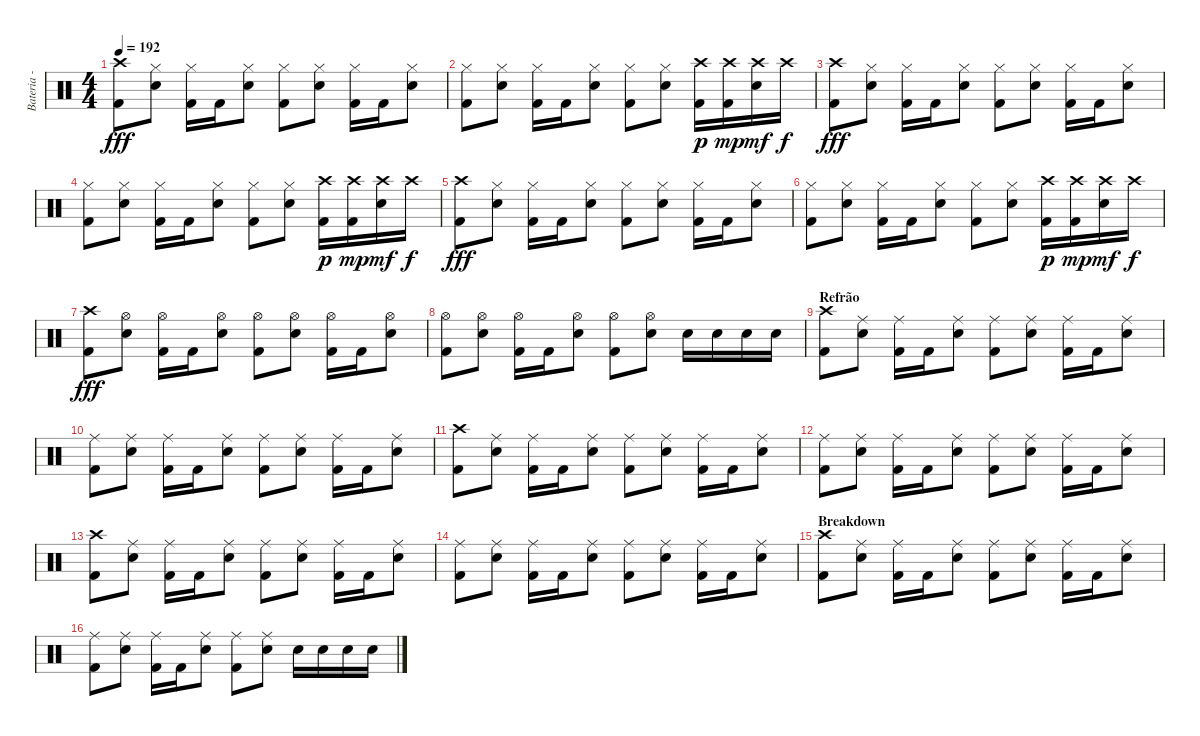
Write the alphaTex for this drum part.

\track ("Bateria - Larzon" "Bateria - ") {instrument percussion}
\staff {score}
\articulation defaults
\ts (4 4)
\tempo 192
\clef neutral
\ks c
("Kick (hit) 2" "Crash high (hit)").8{dy fff} ("Electric Snare (hit)" "Hi-Hat (closed)").8 ("Kick (hit) 2" "Hi-Hat (closed)").16 "Kick (hit) 2".16 ("Electric Snare (hit)" "Hi-Hat (closed)").8 ("Kick (hit) 2" "Hi-Hat (closed)").8 ("Electric Snare (hit)" "Hi-Hat (closed)").8 ("Kick (hit) 2" "Hi-Hat (closed)").16 "Kick (hit) 2".16 ("Electric Snare (hit)" "Hi-Hat (closed)").8 |
("Kick (hit) 2" "Hi-Hat (closed)").8 ("Electric Snare (hit)" "Hi-Hat (closed)").8 ("Kick (hit) 2" "Hi-Hat (closed)").16 "Kick (hit) 2".16 ("Electric Snare (hit)" "Hi-Hat (closed)").8 ("Kick (hit) 2" "Hi-Hat (closed)").8 ("Electric Snare (hit)" "Hi-Hat (closed)").8 ("Kick (hit) 2" "Crash high (hit)").16{dy p} ("Kick (hit) 2" "Crash high (hit)").16{dy mp} ("Electric Snare (hit)" "Crash high (hit)").16{dy mf} "Crash high (hit)".16{dy f} |
("Kick (hit) 2" "Crash high (hit)").8{dy fff} ("Electric Snare (hit)" "Hi-Hat (closed)").8 ("Kick (hit) 2" "Hi-Hat (closed)").16 "Kick (hit) 2".16 ("Electric Snare (hit)" "Hi-Hat (closed)").8 ("Kick (hit) 2" "Hi-Hat (closed)").8 ("Electric Snare (hit)" "Hi-Hat (closed)").8 ("Kick (hit) 2" "Hi-Hat (closed)").16 "Kick (hit) 2".16 ("Electric Snare (hit)" "Hi-Hat (closed)").8 |
("Kick (hit) 2" "Hi-Hat (closed)").8 ("Electric Snare (hit)" "Hi-Hat (closed)").8 ("Kick (hit) 2" "Hi-Hat (closed)").16 "Kick (hit) 2".16 ("Electric Snare (hit)" "Hi-Hat (closed)").8 ("Kick (hit) 2" "Hi-Hat (closed)").8 ("Electric Snare (hit)" "Hi-Hat (closed)").8 ("Kick (hit) 2" "Crash high (hit)").16{dy p} ("Kick (hit) 2" "Crash high (hit)").16{dy mp} ("Electric Snare (hit)" "Crash high (hit)").16{dy mf} "Crash high (hit)".16{dy f} |
("Kick (hit) 2" "Crash high (hit)").8{dy fff} ("Electric Snare (hit)" "Hi-Hat (closed)").8 ("Kick (hit) 2" "Hi-Hat (closed)").16 "Kick (hit) 2".16 ("Electric Snare (hit)" "Hi-Hat (closed)").8 ("Kick (hit) 2" "Hi-Hat (closed)").8 ("Electric Snare (hit)" "Hi-Hat (closed)").8 ("Kick (hit) 2" "Hi-Hat (closed)").16 "Kick (hit) 2".16 ("Electric Snare (hit)" "Hi-Hat (closed)").8 |
("Kick (hit) 2" "Hi-Hat (closed)").8 ("Electric Snare (hit)" "Hi-Hat (closed)").8 ("Kick (hit) 2" "Hi-Hat (closed)").16 "Kick (hit) 2".16 ("Electric Snare (hit)" "Hi-Hat (closed)").8 ("Kick (hit) 2" "Hi-Hat (closed)").8 ("Electric Snare (hit)" "Hi-Hat (closed)").8 ("Kick (hit) 2" "Crash high (hit)").16{dy p} ("Kick (hit) 2" "Crash high (hit)").16{dy mp} ("Electric Snare (hit)" "Crash high (hit)").16{dy mf} "Crash high (hit)".16{dy f} |
("Kick (hit) 2" "Crash high (hit)").8{dy fff} ("Electric Snare (hit)" "Hi-Hat (open)").8 ("Kick (hit) 2" "Hi-Hat (open)").16 "Kick (hit) 2".16 ("Electric Snare (hit)" "Hi-Hat (open)").8 ("Kick (hit) 2" "Hi-Hat (open)").8 ("Electric Snare (hit)" "Hi-Hat (open)").8 ("Kick (hit) 2" "Hi-Hat (open)").16 "Kick (hit) 2".16 ("Electric Snare (hit)" "Hi-Hat (open)").8 |
("Kick (hit) 2" "Hi-Hat (open)").8 ("Electric Snare (hit)" "Hi-Hat (open)").8 ("Kick (hit) 2" "Hi-Hat (open)").16 "Kick (hit) 2".16 ("Electric Snare (hit)" "Hi-Hat (open)").8 ("Kick (hit) 2" "Hi-Hat (open)").8 ("Electric Snare (hit)" "Hi-Hat (open)").8 "Electric Snare (hit)".16 "Electric Snare (hit)".16 "Electric Snare (hit)".16 "Electric Snare (hit)".16 |
\section ("" "Refrão")
("Kick (hit) 2" "Crash high (hit)").8 ("Electric Snare (hit)" "Ride (middle)").8 ("Kick (hit) 2" "Ride (middle)").16 "Kick (hit) 2".16 ("Electric Snare (hit)" "Ride (middle)").8 ("Kick (hit) 2" "Ride (middle)").8 ("Electric Snare (hit)" "Ride (middle)").8 ("Kick (hit) 2" "Ride (middle)").16 "Kick (hit) 2".16 ("Electric Snare (hit)" "Ride (middle)").8 |
("Kick (hit) 2" "Ride (middle)").8 ("Electric Snare (hit)" "Ride (middle)").8 ("Kick (hit) 2" "Ride (middle)").16 "Kick (hit) 2".16 ("Electric Snare (hit)" "Ride (middle)").8 ("Kick (hit) 2" "Ride (middle)").8 ("Electric Snare (hit)" "Ride (middle)").8 ("Kick (hit) 2" "Ride (middle)").16 "Kick (hit) 2".16 ("Electric Snare (hit)" "Ride (middle)").8 |
("Kick (hit) 2" "Crash high (hit)").8 ("Electric Snare (hit)" "Ride (middle)").8 ("Kick (hit) 2" "Ride (middle)").16 "Kick (hit) 2".16 ("Electric Snare (hit)" "Ride (middle)").8 ("Kick (hit) 2" "Ride (middle)").8 ("Electric Snare (hit)" "Ride (middle)").8 ("Kick (hit) 2" "Ride (middle)").16 "Kick (hit) 2".16 ("Electric Snare (hit)" "Ride (middle)").8 |
("Kick (hit) 2" "Ride (middle)").8 ("Electric Snare (hit)" "Ride (middle)").8 ("Kick (hit) 2" "Ride (middle)").16 "Kick (hit) 2".16 ("Electric Snare (hit)" "Ride (middle)").8 ("Kick (hit) 2" "Ride (middle)").8 ("Electric Snare (hit)" "Ride (middle)").8 ("Kick (hit) 2" "Ride (middle)").16 "Kick (hit) 2".16 ("Electric Snare (hit)" "Ride (middle)").8 |
("Kick (hit) 2" "Crash high (hit)").8 ("Electric Snare (hit)" "Ride (middle)").8 ("Kick (hit) 2" "Ride (middle)").16 "Kick (hit) 2".16 ("Electric Snare (hit)" "Ride (middle)").8 ("Kick (hit) 2" "Ride (middle)").8 ("Electric Snare (hit)" "Ride (middle)").8 ("Kick (hit) 2" "Ride (middle)").16 "Kick (hit) 2".16 ("Electric Snare (hit)" "Ride (middle)").8 |
("Kick (hit) 2" "Ride (middle)").8 ("Electric Snare (hit)" "Ride (middle)").8 ("Kick (hit) 2" "Ride (middle)").16 "Kick (hit) 2".16 ("Electric Snare (hit)" "Ride (middle)").8 ("Kick (hit) 2" "Ride (middle)").8 ("Electric Snare (hit)" "Ride (middle)").8 ("Kick (hit) 2" "Ride (middle)").16 "Kick (hit) 2".16 ("Electric Snare (hit)" "Ride (middle)").8 |
\section ("" "Breakdown")
("Kick (hit) 2" "Crash high (hit)").8 ("Electric Snare (hit)" "Ride (middle)").8 ("Kick (hit) 2" "Ride (middle)").16 "Kick (hit) 2".16 ("Electric Snare (hit)" "Ride (middle)").8 ("Kick (hit) 2" "Ride (middle)").8 ("Electric Snare (hit)" "Ride (middle)").8 ("Kick (hit) 2" "Ride (middle)").16 "Kick (hit) 2".16 ("Electric Snare (hit)" "Ride (middle)").8 |
("Kick (hit) 2" "Ride (middle)").8 ("Electric Snare (hit)" "Ride (middle)").8 ("Kick (hit) 2" "Ride (middle)").16 "Kick (hit) 2".16 ("Electric Snare (hit)" "Ride (middle)").8 ("Kick (hit) 2" "Ride (middle)").8 ("Electric Snare (hit)" "Ride (middle)").8 "Electric Snare (hit)".16 "Electric Snare (hit)".16 "Electric Snare (hit)".16 "Electric Snare (hit)".16
